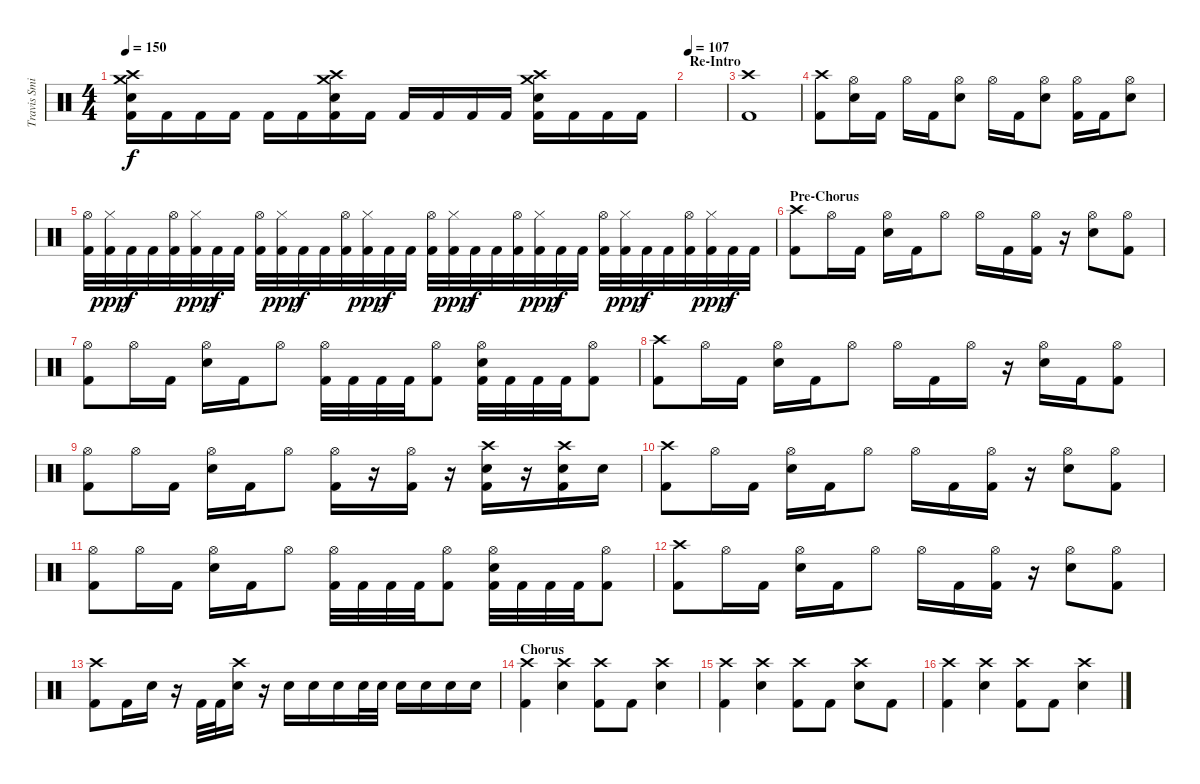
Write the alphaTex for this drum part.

\track ("Travis Smith" "Travis Smi") {instrument percussion}
\staff {score}
\articulation defaults
\ts (4 4)
\tempo 150
\clef neutral
\ks c
("Crash high (hit)" "Crash medium (hit)" "Electric Snare (hit)" "Kick (hit) 2").16{dy f} "Kick (hit) 2".16 "Kick (hit) 2".16 "Kick (hit) 2".16 "Kick (hit) 2".16 "Kick (hit) 2".16 ("Crash high (hit)" "Crash medium (hit)" "Electric Snare (hit)" "Kick (hit) 2").16 "Kick (hit) 2".16 "Kick (hit) 2".16 "Kick (hit) 2".16 "Kick (hit) 2".16 "Kick (hit) 2".16 ("Crash high (hit)" "Crash medium (hit)" "Electric Snare (hit)" "Kick (hit) 2").16 "Kick (hit) 2".16 "Kick (hit) 2".16 "Kick (hit) 2".16 |
\section ("" "Re-Intro")
\tempo 107
|
("Crash high (hit)" "Kick (hit) 2").1 |
("Crash high (hit)" "Kick (hit) 2").8 ("Hi-Hat (open)" "Electric Snare (hit)").16 "Kick (hit) 2".16 "Hi-Hat (open)".16 "Kick (hit) 2".16 ("Hi-Hat (open)" "Electric Snare (hit)").8 "Hi-Hat (open)".16 "Kick (hit) 2".16 ("Hi-Hat (open)" "Electric Snare (hit)").8 ("Hi-Hat (open)" "Kick (hit) 2").16 "Kick (hit) 2".16 ("Hi-Hat (open)" "Electric Snare (hit)").8 |
("Hi-Hat (open)" "Kick (hit) 2").32 ("Hi-Hat (closed)" "Kick (hit) 2").32{dy ppp} "Kick (hit) 2".32{dy f} "Kick (hit) 2".32 ("Hi-Hat (open)" "Kick (hit) 2").32 ("Hi-Hat (closed)" "Kick (hit) 2").32{dy ppp} "Kick (hit) 2".32{dy f} "Kick (hit) 2".32 ("Hi-Hat (open)" "Kick (hit) 2").32 ("Hi-Hat (closed)" "Kick (hit) 2").32{dy ppp} "Kick (hit) 2".32{dy f} "Kick (hit) 2".32 ("Hi-Hat (open)" "Kick (hit) 2").32 ("Hi-Hat (closed)" "Kick (hit) 2").32{dy ppp} "Kick (hit) 2".32{dy f} "Kick (hit) 2".32 ("Hi-Hat (open)" "Kick (hit) 2").32 ("Hi-Hat (closed)" "Kick (hit) 2").32{dy ppp} "Kick (hit) 2".32{dy f} "Kick (hit) 2".32 ("Hi-Hat (open)" "Kick (hit) 2").32 ("Hi-Hat (closed)" "Kick (hit) 2").32{dy ppp} "Kick (hit) 2".32{dy f} "Kick (hit) 2".32 ("Hi-Hat (open)" "Kick (hit) 2").32 ("Hi-Hat (closed)" "Kick (hit) 2").32{dy ppp} "Kick (hit) 2".32{dy f} "Kick (hit) 2".32 ("Hi-Hat (open)" "Kick (hit) 2").32 ("Hi-Hat (closed)" "Kick (hit) 2").32{dy ppp} "Kick (hit) 2".32{dy f} "Kick (hit) 2".32 |
\section ("" "Pre-Chorus")
("Crash high (hit)" "Kick (hit) 2").8 "Hi-Hat (open)".16 "Kick (hit) 2".16 ("Hi-Hat (open)" "Electric Snare (hit)").16 "Kick (hit) 2".16 "Hi-Hat (open)".8 "Hi-Hat (open)".16 "Kick (hit) 2".16 ("Hi-Hat (open)" "Kick (hit) 2").16 r.16 ("Hi-Hat (open)" "Electric Snare (hit)").8 ("Hi-Hat (open)" "Kick (hit) 2").8 |
("Hi-Hat (open)" "Kick (hit) 2").8 "Hi-Hat (open)".16 "Kick (hit) 2".16 ("Hi-Hat (open)" "Electric Snare (hit)").16 "Kick (hit) 2".16 "Hi-Hat (open)".8 ("Hi-Hat (open)" "Kick (hit) 2").32 "Kick (hit) 2".32 "Kick (hit) 2".32 "Kick (hit) 2".32 ("Hi-Hat (open)" "Kick (hit) 2").8 ("Hi-Hat (open)" "Electric Snare (hit)" "Kick (hit) 2").32 "Kick (hit) 2".32 "Kick (hit) 2".32 "Kick (hit) 2".32 ("Hi-Hat (open)" "Kick (hit) 2").8 |
("Crash high (hit)" "Kick (hit) 2").8 "Hi-Hat (open)".16 "Kick (hit) 2".16 ("Hi-Hat (open)" "Electric Snare (hit)").16 "Kick (hit) 2".16 "Hi-Hat (open)".8 "Hi-Hat (open)".16 "Kick (hit) 2".16 "Hi-Hat (open)".16 r.16 ("Hi-Hat (open)" "Electric Snare (hit)").16 "Kick (hit) 2".16 ("Hi-Hat (open)" "Kick (hit) 2").8 |
("Hi-Hat (open)" "Kick (hit) 2").8 "Hi-Hat (open)".16 "Kick (hit) 2".16 ("Hi-Hat (open)" "Electric Snare (hit)").16 "Kick (hit) 2".16 "Hi-Hat (open)".8 ("Hi-Hat (open)" "Kick (hit) 2").16 r.16 ("Hi-Hat (open)" "Kick (hit) 2").16 r.16 ("Crash high (hit)" "Electric Snare (hit)" "Kick (hit) 2").16 r.16 ("Crash high (hit)" "Electric Snare (hit)" "Kick (hit) 2").16 "Electric Snare (hit)".16 |
("Crash high (hit)" "Kick (hit) 2").8 "Hi-Hat (open)".16 "Kick (hit) 2".16 ("Hi-Hat (open)" "Electric Snare (hit)").16 "Kick (hit) 2".16 "Hi-Hat (open)".8 "Hi-Hat (open)".16 "Kick (hit) 2".16 ("Hi-Hat (open)" "Kick (hit) 2").16 r.16 ("Hi-Hat (open)" "Electric Snare (hit)").8 ("Hi-Hat (open)" "Kick (hit) 2").8 |
("Hi-Hat (open)" "Kick (hit) 2").8 "Hi-Hat (open)".16 "Kick (hit) 2".16 ("Hi-Hat (open)" "Electric Snare (hit)").16 "Kick (hit) 2".16 "Hi-Hat (open)".8 ("Hi-Hat (open)" "Kick (hit) 2").32 "Kick (hit) 2".32 "Kick (hit) 2".32 "Kick (hit) 2".32 ("Hi-Hat (open)" "Kick (hit) 2").8 ("Hi-Hat (open)" "Electric Snare (hit)" "Kick (hit) 2").32 "Kick (hit) 2".32 "Kick (hit) 2".32 "Kick (hit) 2".32 ("Hi-Hat (open)" "Kick (hit) 2").8 |
("Crash high (hit)" "Kick (hit) 2").8 "Hi-Hat (open)".16 "Kick (hit) 2".16 ("Hi-Hat (open)" "Electric Snare (hit)").16 "Kick (hit) 2".16 "Hi-Hat (open)".8 "Hi-Hat (open)".16 "Kick (hit) 2".16 ("Hi-Hat (open)" "Kick (hit) 2").16 r.16 ("Hi-Hat (open)" "Electric Snare (hit)").8 ("Hi-Hat (open)" "Kick (hit) 2").8 |
("Crash high (hit)" "Kick (hit) 2").8 "Kick (hit) 2".16 "Electric Snare (hit)".16 r.16 "Kick (hit) 2".32 "Kick (hit) 2".32 ("Crash high (hit)" "Electric Snare (hit)").16 r.16 "Electric Snare (hit)".16 "Electric Snare (hit)".16 "Electric Snare (hit)".16 "Electric Snare (hit)".32 "Electric Snare (hit)".32 "Electric Snare (hit)".16 "Electric Snare (hit)".16 "Electric Snare (hit)".16 "Electric Snare (hit)".16 |
\section ("" "Chorus")
("Crash high (hit)" "Kick (hit) 2").4 ("Crash high (hit)" "Electric Snare (hit)").4 ("Crash high (hit)" "Kick (hit) 2").8 "Kick (hit) 2".8 ("Crash high (hit)" "Electric Snare (hit)").4 |
("Crash high (hit)" "Kick (hit) 2").4 ("Crash high (hit)" "Electric Snare (hit)").4 ("Crash high (hit)" "Kick (hit) 2").8 "Kick (hit) 2".8 ("Crash high (hit)" "Electric Snare (hit)").8 "Kick (hit) 2".8 |
("Crash high (hit)" "Kick (hit) 2").4 ("Crash high (hit)" "Electric Snare (hit)").4 ("Crash high (hit)" "Kick (hit) 2").8 "Kick (hit) 2".8 ("Crash high (hit)" "Electric Snare (hit)").4
